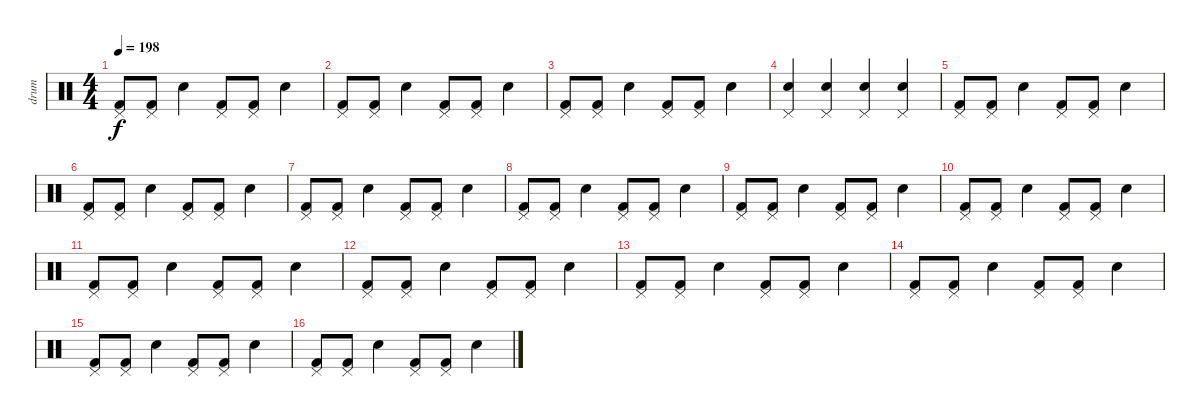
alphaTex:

\track ("drum" "drum") {instrument percussion}
\staff {score}
\articulation defaults
\ts (4 4)
\tempo 198
\clef neutral
\ks c
("Pedal Hi-Hat (hit)" "Kick (hit) 2").8{dy f} ("Pedal Hi-Hat (hit)" "Kick (hit) 2").8 "Electric Snare (hit)".4 ("Pedal Hi-Hat (hit)" "Kick (hit) 2").8 ("Pedal Hi-Hat (hit)" "Kick (hit) 2").8 "Electric Snare (hit)".4 |
("Pedal Hi-Hat (hit)" "Kick (hit) 2").8 ("Pedal Hi-Hat (hit)" "Kick (hit) 2").8 "Electric Snare (hit)".4 ("Pedal Hi-Hat (hit)" "Kick (hit) 2").8 ("Pedal Hi-Hat (hit)" "Kick (hit) 2").8 "Electric Snare (hit)".4 |
("Pedal Hi-Hat (hit)" "Kick (hit) 2").8 ("Pedal Hi-Hat (hit)" "Kick (hit) 2").8 "Electric Snare (hit)".4 ("Pedal Hi-Hat (hit)" "Kick (hit) 2").8 ("Pedal Hi-Hat (hit)" "Kick (hit) 2").8 "Electric Snare (hit)".4 |
("Pedal Hi-Hat (hit)" "Electric Snare (hit)").4 ("Pedal Hi-Hat (hit)" "Electric Snare (hit)").4 ("Pedal Hi-Hat (hit)" "Electric Snare (hit)").4 ("Pedal Hi-Hat (hit)" "Electric Snare (hit)").4 |
("Pedal Hi-Hat (hit)" "Kick (hit) 2").8 ("Pedal Hi-Hat (hit)" "Kick (hit) 2").8 "Electric Snare (hit)".4 ("Pedal Hi-Hat (hit)" "Kick (hit) 2").8 ("Pedal Hi-Hat (hit)" "Kick (hit) 2").8 "Electric Snare (hit)".4 |
("Pedal Hi-Hat (hit)" "Kick (hit) 2").8 ("Pedal Hi-Hat (hit)" "Kick (hit) 2").8 "Electric Snare (hit)".4 ("Pedal Hi-Hat (hit)" "Kick (hit) 2").8 ("Pedal Hi-Hat (hit)" "Kick (hit) 2").8 "Electric Snare (hit)".4 |
("Pedal Hi-Hat (hit)" "Kick (hit) 2").8 ("Pedal Hi-Hat (hit)" "Kick (hit) 2").8 "Electric Snare (hit)".4 ("Pedal Hi-Hat (hit)" "Kick (hit) 2").8 ("Pedal Hi-Hat (hit)" "Kick (hit) 2").8 "Electric Snare (hit)".4 |
("Pedal Hi-Hat (hit)" "Kick (hit) 2").8 ("Pedal Hi-Hat (hit)" "Kick (hit) 2").8 "Electric Snare (hit)".4 ("Pedal Hi-Hat (hit)" "Kick (hit) 2").8 ("Pedal Hi-Hat (hit)" "Kick (hit) 2").8 "Electric Snare (hit)".4 |
("Pedal Hi-Hat (hit)" "Kick (hit) 2").8 ("Pedal Hi-Hat (hit)" "Kick (hit) 2").8 "Electric Snare (hit)".4 ("Pedal Hi-Hat (hit)" "Kick (hit) 2").8 ("Pedal Hi-Hat (hit)" "Kick (hit) 2").8 "Electric Snare (hit)".4 |
("Pedal Hi-Hat (hit)" "Kick (hit) 2").8 ("Pedal Hi-Hat (hit)" "Kick (hit) 2").8 "Electric Snare (hit)".4 ("Pedal Hi-Hat (hit)" "Kick (hit) 2").8 ("Pedal Hi-Hat (hit)" "Kick (hit) 2").8 "Electric Snare (hit)".4 |
("Pedal Hi-Hat (hit)" "Kick (hit) 2").8 ("Pedal Hi-Hat (hit)" "Kick (hit) 2").8 "Electric Snare (hit)".4 ("Pedal Hi-Hat (hit)" "Kick (hit) 2").8 ("Pedal Hi-Hat (hit)" "Kick (hit) 2").8 "Electric Snare (hit)".4 |
("Pedal Hi-Hat (hit)" "Kick (hit) 2").8 ("Pedal Hi-Hat (hit)" "Kick (hit) 2").8 "Electric Snare (hit)".4 ("Pedal Hi-Hat (hit)" "Kick (hit) 2").8 ("Pedal Hi-Hat (hit)" "Kick (hit) 2").8 "Electric Snare (hit)".4 |
("Pedal Hi-Hat (hit)" "Kick (hit) 2").8 ("Pedal Hi-Hat (hit)" "Kick (hit) 2").8 "Electric Snare (hit)".4 ("Pedal Hi-Hat (hit)" "Kick (hit) 2").8 ("Pedal Hi-Hat (hit)" "Kick (hit) 2").8 "Electric Snare (hit)".4 |
("Pedal Hi-Hat (hit)" "Kick (hit) 2").8 ("Pedal Hi-Hat (hit)" "Kick (hit) 2").8 "Electric Snare (hit)".4 ("Pedal Hi-Hat (hit)" "Kick (hit) 2").8 ("Pedal Hi-Hat (hit)" "Kick (hit) 2").8 "Electric Snare (hit)".4 |
("Pedal Hi-Hat (hit)" "Kick (hit) 2").8 ("Pedal Hi-Hat (hit)" "Kick (hit) 2").8 "Electric Snare (hit)".4 ("Pedal Hi-Hat (hit)" "Kick (hit) 2").8 ("Pedal Hi-Hat (hit)" "Kick (hit) 2").8 "Electric Snare (hit)".4 |
("Pedal Hi-Hat (hit)" "Kick (hit) 2").8 ("Pedal Hi-Hat (hit)" "Kick (hit) 2").8 "Electric Snare (hit)".4 ("Pedal Hi-Hat (hit)" "Kick (hit) 2").8 ("Pedal Hi-Hat (hit)" "Kick (hit) 2").8 "Electric Snare (hit)".4
